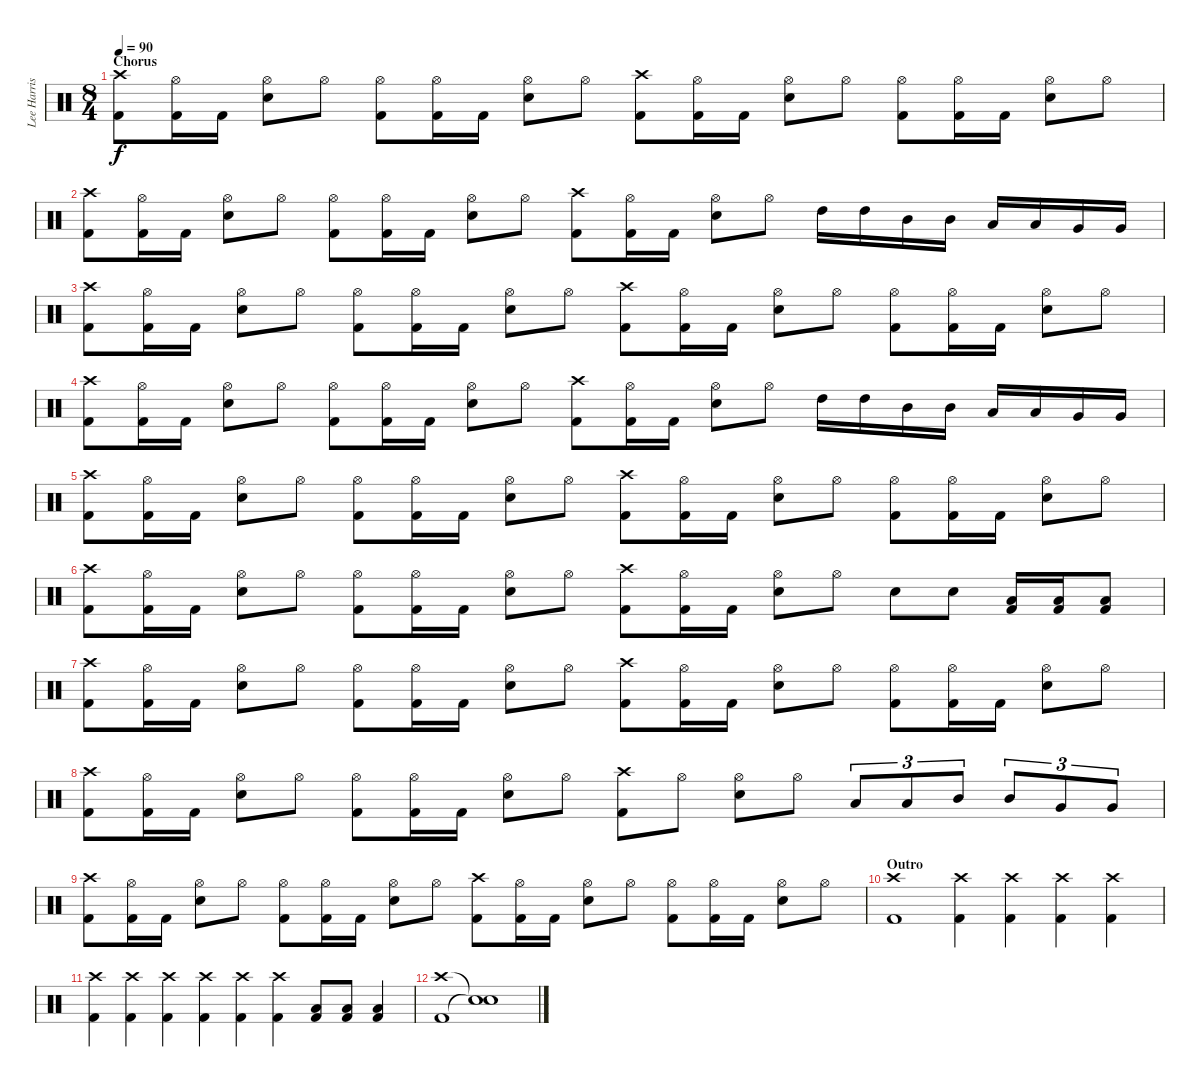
\track ("Lee Harris" "Lee Harris") {instrument percussion}
\staff {score}
\articulation defaults
\ts (8 4)
\section ("" "Chorus")
\tempo 90
\clef neutral
\ks c
("Crash high (hit)" "Kick (hit) 2").8{dy f} ("Hi-Hat (open)" "Kick (hit) 2").16 "Kick (hit) 2".16 ("Hi-Hat (open)" "Electric Snare (hit)").8 "Hi-Hat (open)".8 ("Hi-Hat (open)" "Kick (hit) 2").8 ("Hi-Hat (open)" "Kick (hit) 2").16 "Kick (hit) 2".16 ("Hi-Hat (open)" "Electric Snare (hit)").8 "Hi-Hat (open)".8 ("Crash high (hit)" "Kick (hit) 2").8 ("Hi-Hat (open)" "Kick (hit) 2").16 "Kick (hit) 2".16 ("Hi-Hat (open)" "Electric Snare (hit)").8 "Hi-Hat (open)".8 ("Hi-Hat (open)" "Kick (hit) 2").8 ("Hi-Hat (open)" "Kick (hit) 2").16 "Kick (hit) 2".16 ("Hi-Hat (open)" "Electric Snare (hit)").8 "Hi-Hat (open)".8 |
("Crash high (hit)" "Kick (hit) 2").8 ("Hi-Hat (open)" "Kick (hit) 2").16 "Kick (hit) 2".16 ("Hi-Hat (open)" "Electric Snare (hit)").8 "Hi-Hat (open)".8 ("Hi-Hat (open)" "Kick (hit) 2").8 ("Hi-Hat (open)" "Kick (hit) 2").16 "Kick (hit) 2".16 ("Hi-Hat (open)" "Electric Snare (hit)").8 "Hi-Hat (open)".8 ("Crash high (hit)" "Kick (hit) 2").8 ("Hi-Hat (open)" "Kick (hit) 2").16 "Kick (hit) 2".16 ("Hi-Hat (open)" "Electric Snare (hit)").8 "Hi-Hat (open)".8 "High Tom (hit)".16 "High Tom (hit)".16 "Mid Tom (hit)".16 "Mid Tom (hit)".16 "Low Tom (hit)".16 "Low Tom (hit)".16 "Very Low Tom (hit)".16 "Very Low Tom (hit)".16 |
("Crash high (hit)" "Kick (hit) 2").8 ("Hi-Hat (open)" "Kick (hit) 2").16 "Kick (hit) 2".16 ("Hi-Hat (open)" "Electric Snare (hit)").8 "Hi-Hat (open)".8 ("Hi-Hat (open)" "Kick (hit) 2").8 ("Hi-Hat (open)" "Kick (hit) 2").16 "Kick (hit) 2".16 ("Hi-Hat (open)" "Electric Snare (hit)").8 "Hi-Hat (open)".8 ("Crash high (hit)" "Kick (hit) 2").8 ("Hi-Hat (open)" "Kick (hit) 2").16 "Kick (hit) 2".16 ("Hi-Hat (open)" "Electric Snare (hit)").8 "Hi-Hat (open)".8 ("Hi-Hat (open)" "Kick (hit) 2").8 ("Hi-Hat (open)" "Kick (hit) 2").16 "Kick (hit) 2".16 ("Hi-Hat (open)" "Electric Snare (hit)").8 "Hi-Hat (open)".8 |
("Crash high (hit)" "Kick (hit) 2").8 ("Hi-Hat (open)" "Kick (hit) 2").16 "Kick (hit) 2".16 ("Hi-Hat (open)" "Electric Snare (hit)").8 "Hi-Hat (open)".8 ("Hi-Hat (open)" "Kick (hit) 2").8 ("Hi-Hat (open)" "Kick (hit) 2").16 "Kick (hit) 2".16 ("Hi-Hat (open)" "Electric Snare (hit)").8 "Hi-Hat (open)".8 ("Crash high (hit)" "Kick (hit) 2").8 ("Hi-Hat (open)" "Kick (hit) 2").16 "Kick (hit) 2".16 ("Hi-Hat (open)" "Electric Snare (hit)").8 "Hi-Hat (open)".8 "High Tom (hit)".16 "High Tom (hit)".16 "Mid Tom (hit)".16 "Mid Tom (hit)".16 "Low Tom (hit)".16 "Low Tom (hit)".16 "Very Low Tom (hit)".16 "Very Low Tom (hit)".16 |
("Crash high (hit)" "Kick (hit) 2").8 ("Hi-Hat (open)" "Kick (hit) 2").16 "Kick (hit) 2".16 ("Hi-Hat (open)" "Electric Snare (hit)").8 "Hi-Hat (open)".8 ("Hi-Hat (open)" "Kick (hit) 2").8 ("Hi-Hat (open)" "Kick (hit) 2").16 "Kick (hit) 2".16 ("Hi-Hat (open)" "Electric Snare (hit)").8 "Hi-Hat (open)".8 ("Crash high (hit)" "Kick (hit) 2").8 ("Hi-Hat (open)" "Kick (hit) 2").16 "Kick (hit) 2".16 ("Hi-Hat (open)" "Electric Snare (hit)").8 "Hi-Hat (open)".8 ("Hi-Hat (open)" "Kick (hit) 2").8 ("Hi-Hat (open)" "Kick (hit) 2").16 "Kick (hit) 2".16 ("Hi-Hat (open)" "Electric Snare (hit)").8 "Hi-Hat (open)".8 |
("Crash high (hit)" "Kick (hit) 2").8 ("Hi-Hat (open)" "Kick (hit) 2").16 "Kick (hit) 2".16 ("Hi-Hat (open)" "Electric Snare (hit)").8 "Hi-Hat (open)".8 ("Hi-Hat (open)" "Kick (hit) 2").8 ("Hi-Hat (open)" "Kick (hit) 2").16 "Kick (hit) 2".16 ("Hi-Hat (open)" "Electric Snare (hit)").8 "Hi-Hat (open)".8 ("Crash high (hit)" "Kick (hit) 2").8 ("Hi-Hat (open)" "Kick (hit) 2").16 "Kick (hit) 2".16 ("Hi-Hat (open)" "Electric Snare (hit)").8 "Hi-Hat (open)".8 "Electric Snare (hit)".8 "Electric Snare (hit)".8 ("Low Floor Tom (hit)" "Kick (hit) 2").16 ("Low Floor Tom (hit)" "Kick (hit) 2").16 ("Low Floor Tom (hit)" "Kick (hit) 2").8 |
("Crash high (hit)" "Kick (hit) 2").8 ("Hi-Hat (open)" "Kick (hit) 2").16 "Kick (hit) 2".16 ("Hi-Hat (open)" "Electric Snare (hit)").8 "Hi-Hat (open)".8 ("Hi-Hat (open)" "Kick (hit) 2").8 ("Hi-Hat (open)" "Kick (hit) 2").16 "Kick (hit) 2".16 ("Hi-Hat (open)" "Electric Snare (hit)").8 "Hi-Hat (open)".8 ("Crash high (hit)" "Kick (hit) 2").8 ("Hi-Hat (open)" "Kick (hit) 2").16 "Kick (hit) 2".16 ("Hi-Hat (open)" "Electric Snare (hit)").8 "Hi-Hat (open)".8 ("Hi-Hat (open)" "Kick (hit) 2").8 ("Hi-Hat (open)" "Kick (hit) 2").16 "Kick (hit) 2".16 ("Hi-Hat (open)" "Electric Snare (hit)").8 "Hi-Hat (open)".8 |
("Crash high (hit)" "Kick (hit) 2").8 ("Hi-Hat (open)" "Kick (hit) 2").16 "Kick (hit) 2".16 ("Hi-Hat (open)" "Electric Snare (hit)").8 "Hi-Hat (open)".8 ("Hi-Hat (open)" "Kick (hit) 2").8 ("Hi-Hat (open)" "Kick (hit) 2").16 "Kick (hit) 2".16 ("Hi-Hat (open)" "Electric Snare (hit)").8 "Hi-Hat (open)".8 ("Crash high (hit)" "Kick (hit) 2").8 "Hi-Hat (open)".8 ("Hi-Hat (open)" "Electric Snare (hit)").8 "Hi-Hat (open)".8 "Low Tom (hit)".8{tu (3 2)} "Low Tom (hit)".8{tu (3 2)} "Mid Tom (hit)".8{tu (3 2)} "Mid Tom (hit)".8{tu (3 2)} "Very Low Tom (hit)".8{tu (3 2)} "Very Low Tom (hit)".8{tu (3 2)} |
("Crash high (hit)" "Kick (hit) 2").8 ("Hi-Hat (open)" "Kick (hit) 2").16 "Kick (hit) 2".16 ("Hi-Hat (open)" "Electric Snare (hit)").8 "Hi-Hat (open)".8 ("Hi-Hat (open)" "Kick (hit) 2").8 ("Hi-Hat (open)" "Kick (hit) 2").16 "Kick (hit) 2".16 ("Hi-Hat (open)" "Electric Snare (hit)").8 "Hi-Hat (open)".8 ("Crash high (hit)" "Kick (hit) 2").8 ("Hi-Hat (open)" "Kick (hit) 2").16 "Kick (hit) 2".16 ("Hi-Hat (open)" "Electric Snare (hit)").8 "Hi-Hat (open)".8 ("Hi-Hat (open)" "Kick (hit) 2").8 ("Hi-Hat (open)" "Kick (hit) 2").16 "Kick (hit) 2".16 ("Hi-Hat (open)" "Electric Snare (hit)").8 "Hi-Hat (open)".8 |
\section ("" "Outro")
("Crash high (hit)" "Kick (hit) 2").1 ("Crash high (hit)" "Kick (hit) 2").4 ("Crash high (hit)" "Kick (hit) 2").4 ("Crash high (hit)" "Kick (hit) 2").4 ("Crash high (hit)" "Kick (hit) 2").4 |
("Crash high (hit)" "Kick (hit) 2").4 ("Crash high (hit)" "Kick (hit) 2").4 ("Crash high (hit)" "Kick (hit) 2").4 ("Crash high (hit)" "Kick (hit) 2").4 ("Crash high (hit)" "Kick (hit) 2").4 ("Crash high (hit)" "Kick (hit) 2").4 ("Low Floor Tom (hit)" "Kick (hit) 2").8 ("Low Floor Tom (hit)" "Kick (hit) 2").8 ("Low Floor Tom (hit)" "Kick (hit) 2").4 |
("Crash high (hit)" "Kick (hit) 2").1 ("Snare (hit)"{t} "Snare (hit)"{t}).1
